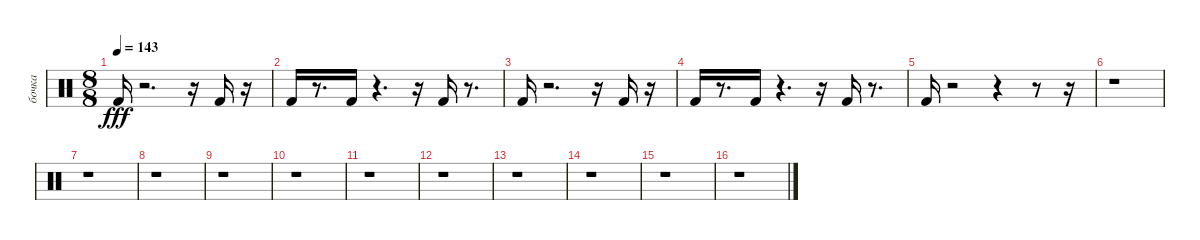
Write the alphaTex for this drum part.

\track ("бочка" "бочка") {instrument percussion}
\staff {score}
\articulation defaults
\ts (8 8)
\tempo 143
\clef neutral
\ks c "Kick (hit) 2".16{dy fff}
r.2{d} r.16 "Kick (hit) 2".16 r.16 |
"Kick (hit) 2".16 r.8{d} "Kick (hit) 2".16 r.4{d} r.16 "Kick (hit) 2".16 r.8{d} |
"Kick (hit) 2".16 r.2{d} r.16 "Kick (hit) 2".16 r.16 |
"Kick (hit) 2".16 r.8{d} "Kick (hit) 2".16 r.4{d} r.16 "Kick (hit) 2".16 r.8{d} |
"Kick (hit) 2".16 r.2 r.4 r.8 r.16 |
r.1 |
r.1 |
r.1 |
r.1 |
r.1 |
r.1 |
r.1 |
r.1 |
r.1 |
r.1 |
r.1
